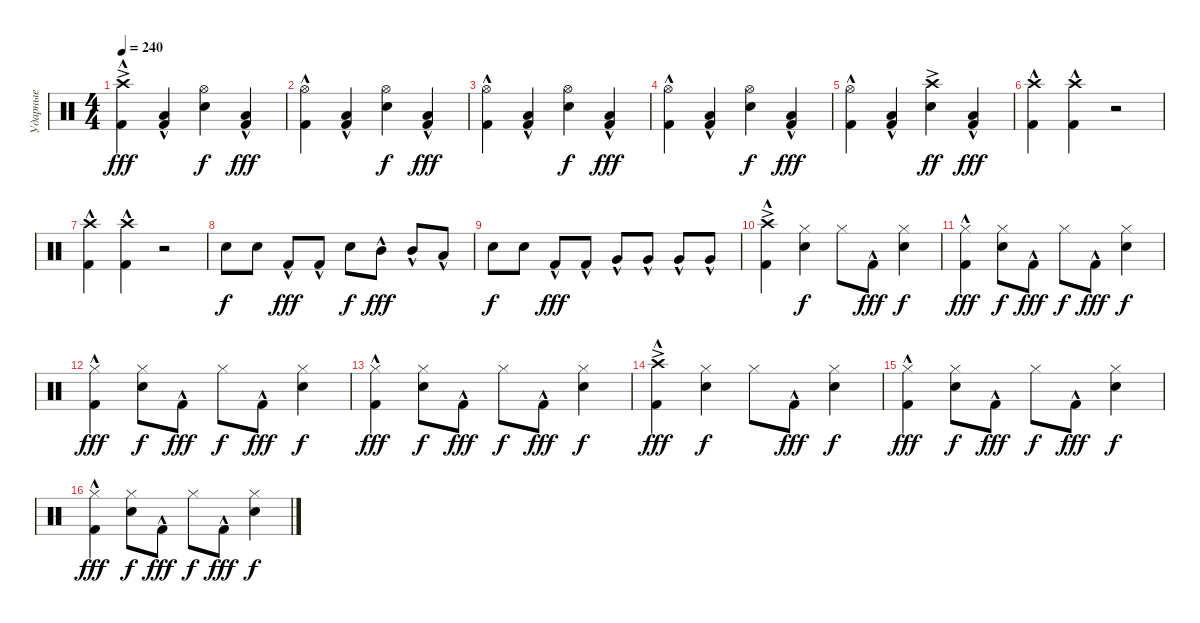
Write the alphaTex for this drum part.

\track ("Ударные" "Ударные") {instrument percussion}
\staff {score}
\articulation defaults
\ts (4 4)
\tempo 240
\clef neutral
\ks c
("Crash high (hit)"{ac} "Kick (hit) 2"{hac}).4{dy fff} ("Low Floor Tom (hit)"{hac} "Kick (hit) 2"{hac}).4 ("Hi-Hat (open)" "Snare (hit) 2").4{dy f} ("Low Floor Tom (hit)"{hac} "Kick (hit) 2"{hac}).4{dy fff} |
("Hi-Hat (open)" "Kick (hit) 2"{hac}).4 ("Low Floor Tom (hit)"{hac} "Kick (hit) 2"{hac}).4 ("Hi-Hat (open)" "Snare (hit) 2").4{dy f} ("Low Floor Tom (hit)"{hac} "Kick (hit) 2"{hac}).4{dy fff} |
("Hi-Hat (open)" "Kick (hit) 2"{hac}).4 ("Low Floor Tom (hit)"{hac} "Kick (hit) 2"{hac}).4 ("Hi-Hat (open)" "Snare (hit) 2").4{dy f} ("Low Floor Tom (hit)"{hac} "Kick (hit) 2"{hac}).4{dy fff} |
("Hi-Hat (open)" "Kick (hit) 2"{hac}).4 ("Low Floor Tom (hit)"{hac} "Kick (hit) 2"{hac}).4 ("Hi-Hat (open)" "Snare (hit) 2").4{dy f} ("Low Floor Tom (hit)"{hac} "Kick (hit) 2"{hac}).4{dy fff} |
("Hi-Hat (open)" "Kick (hit) 2"{hac}).4 ("Low Floor Tom (hit)"{hac} "Kick (hit) 2"{hac}).4 ("Crash high (hit)"{ac} "Snare (hit) 2").4{dy ff} ("Low Floor Tom (hit)"{hac} "Kick (hit) 2"{hac}).4{dy fff} |
("Crash high (hit)" "Kick (hit) 2"{hac}).4 ("Crash high (hit)" "Kick (hit) 2"{hac}).4 r.2 |
("Crash high (hit)" "Kick (hit) 2"{hac}).4 ("Crash high (hit)" "Kick (hit) 2"{hac}).4 r.2 |
"Snare (hit) 2".8{dy f} "Snare (hit) 2".8 "Kick (hit) 2"{hac}.8{dy fff} "Kick (hit) 2"{hac}.8 "Snare (hit) 2".8{dy f} "Mid Tom (hit)"{hac}.8{dy fff} "Mid Tom (hit)"{hac}.8 "Low Tom (hit)"{hac}.8 |
"Snare (hit) 2".8{dy f} "Snare (hit) 2".8 "Kick (hit) 2"{hac}.8{dy fff} "Kick (hit) 2"{hac}.8 "Very Low Tom (hit)"{hac}.8 "Very Low Tom (hit)"{hac}.8 "Very Low Tom (hit)"{hac}.8 "Very Low Tom (hit)"{hac}.8 |
("Crash high (hit)"{ac} "Kick (hit) 2"{hac}).4 ("Hi-Hat (closed)" "Snare (hit) 2").4{dy f} "Hi-Hat (closed)".8 "Kick (hit) 2"{hac}.8{dy fff} ("Hi-Hat (closed)" "Snare (hit) 2").4{dy f} |
("Hi-Hat (closed)" "Kick (hit) 2"{hac}).4{dy fff} ("Hi-Hat (closed)" "Snare (hit) 2").8{dy f} "Kick (hit) 2"{hac}.8{dy fff} "Hi-Hat (closed)".8{dy f} "Kick (hit) 2"{hac}.8{dy fff} ("Hi-Hat (closed)" "Snare (hit) 2").4{dy f} |
("Hi-Hat (closed)" "Kick (hit) 2"{hac}).4{dy fff} ("Hi-Hat (closed)" "Snare (hit) 2").8{dy f} "Kick (hit) 2"{hac}.8{dy fff} "Hi-Hat (closed)".8{dy f} "Kick (hit) 2"{hac}.8{dy fff} ("Hi-Hat (closed)" "Snare (hit) 2").4{dy f} |
("Hi-Hat (closed)" "Kick (hit) 2"{hac}).4{dy fff} ("Hi-Hat (closed)" "Snare (hit) 2").8{dy f} "Kick (hit) 2"{hac}.8{dy fff} "Hi-Hat (closed)".8{dy f} "Kick (hit) 2"{hac}.8{dy fff} ("Hi-Hat (closed)" "Snare (hit) 2").4{dy f} |
("Crash high (hit)"{ac} "Kick (hit) 2"{hac}).4{dy fff} ("Hi-Hat (closed)" "Snare (hit) 2").4{dy f} "Hi-Hat (closed)".8 "Kick (hit) 2"{hac}.8{dy fff} ("Hi-Hat (closed)" "Snare (hit) 2").4{dy f} |
("Hi-Hat (closed)" "Kick (hit) 2"{hac}).4{dy fff} ("Hi-Hat (closed)" "Snare (hit) 2").8{dy f} "Kick (hit) 2"{hac}.8{dy fff} "Hi-Hat (closed)".8{dy f} "Kick (hit) 2"{hac}.8{dy fff} ("Hi-Hat (closed)" "Snare (hit) 2").4{dy f} |
("Hi-Hat (closed)" "Kick (hit) 2"{hac}).4{dy fff} ("Hi-Hat (closed)" "Snare (hit) 2").8{dy f} "Kick (hit) 2"{hac}.8{dy fff} "Hi-Hat (closed)".8{dy f} "Kick (hit) 2"{hac}.8{dy fff} ("Hi-Hat (closed)" "Snare (hit) 2").4{dy f}
